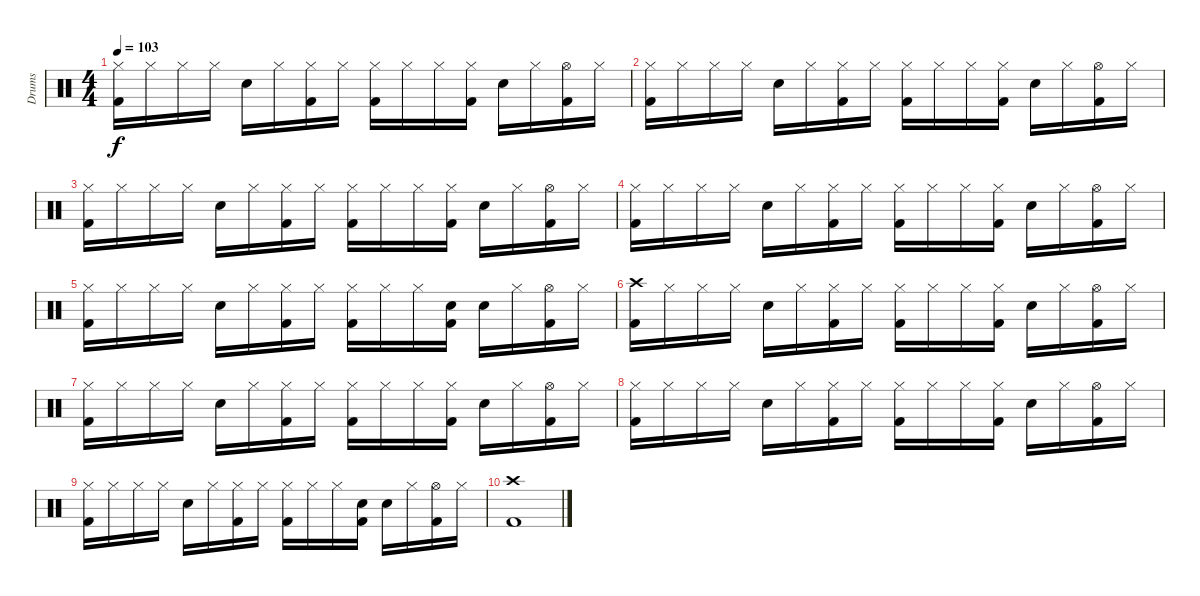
\track ("Drums" "Drums") {instrument percussion}
\staff {score}
\articulation defaults
\ts (4 4)
\tempo 103
\clef neutral
\ks c
("Hi-Hat (closed)" "Kick (hit) 2").16{dy f} "Hi-Hat (closed)".16 "Hi-Hat (closed)".16 "Hi-Hat (closed)".16 "Snare (hit) 2".16 "Hi-Hat (closed)".16 ("Hi-Hat (closed)" "Kick (hit) 2").16 "Hi-Hat (closed)".16 ("Hi-Hat (closed)" "Kick (hit) 2").16 "Hi-Hat (closed)".16 "Hi-Hat (closed)".16 ("Hi-Hat (closed)" "Kick (hit) 2").16 "Snare (hit) 2".16 "Hi-Hat (closed)".16 ("Hi-Hat (open)" "Kick (hit) 2").16 "Hi-Hat (closed)".16 |
("Hi-Hat (closed)" "Kick (hit) 2").16 "Hi-Hat (closed)".16 "Hi-Hat (closed)".16 "Hi-Hat (closed)".16 "Snare (hit) 2".16 "Hi-Hat (closed)".16 ("Hi-Hat (closed)" "Kick (hit) 2").16 "Hi-Hat (closed)".16 ("Hi-Hat (closed)" "Kick (hit) 2").16 "Hi-Hat (closed)".16 "Hi-Hat (closed)".16 ("Hi-Hat (closed)" "Kick (hit) 2").16 "Snare (hit) 2".16 "Hi-Hat (closed)".16 ("Hi-Hat (open)" "Kick (hit) 2").16 "Hi-Hat (closed)".16 |
("Hi-Hat (closed)" "Kick (hit) 2").16 "Hi-Hat (closed)".16 "Hi-Hat (closed)".16 "Hi-Hat (closed)".16 "Snare (hit) 2".16 "Hi-Hat (closed)".16 ("Hi-Hat (closed)" "Kick (hit) 2").16 "Hi-Hat (closed)".16 ("Hi-Hat (closed)" "Kick (hit) 2").16 "Hi-Hat (closed)".16 "Hi-Hat (closed)".16 ("Hi-Hat (closed)" "Kick (hit) 2").16 "Snare (hit) 2".16 "Hi-Hat (closed)".16 ("Hi-Hat (open)" "Kick (hit) 2").16 "Hi-Hat (closed)".16 |
("Hi-Hat (closed)" "Kick (hit) 2").16 "Hi-Hat (closed)".16 "Hi-Hat (closed)".16 "Hi-Hat (closed)".16 "Snare (hit) 2".16 "Hi-Hat (closed)".16 ("Hi-Hat (closed)" "Kick (hit) 2").16 "Hi-Hat (closed)".16 ("Hi-Hat (closed)" "Kick (hit) 2").16 "Hi-Hat (closed)".16 "Hi-Hat (closed)".16 ("Hi-Hat (closed)" "Kick (hit) 2").16 "Snare (hit) 2".16 "Hi-Hat (closed)".16 ("Hi-Hat (open)" "Kick (hit) 2").16 "Hi-Hat (closed)".16 |
("Hi-Hat (closed)" "Kick (hit) 2").16 "Hi-Hat (closed)".16 "Hi-Hat (closed)".16 "Hi-Hat (closed)".16 "Snare (hit) 2".16 "Hi-Hat (closed)".16 ("Hi-Hat (closed)" "Kick (hit) 2").16 "Hi-Hat (closed)".16 ("Hi-Hat (closed)" "Kick (hit) 2").16 "Hi-Hat (closed)".16 "Hi-Hat (closed)".16 ("Snare (hit) 2" "Kick (hit) 2").16 "Snare (hit) 2".16 "Hi-Hat (closed)".16 ("Hi-Hat (open)" "Kick (hit) 2").16 "Hi-Hat (closed)".16 |
("Crash high (hit)" "Kick (hit) 2").16 "Hi-Hat (closed)".16 "Hi-Hat (closed)".16 "Hi-Hat (closed)".16 "Snare (hit) 2".16 "Hi-Hat (closed)".16 ("Hi-Hat (closed)" "Kick (hit) 2").16 "Hi-Hat (closed)".16 ("Hi-Hat (closed)" "Kick (hit) 2").16 "Hi-Hat (closed)".16 "Hi-Hat (closed)".16 ("Hi-Hat (closed)" "Kick (hit) 2").16 "Snare (hit) 2".16 "Hi-Hat (closed)".16 ("Hi-Hat (open)" "Kick (hit) 2").16 "Hi-Hat (closed)".16 |
("Hi-Hat (closed)" "Kick (hit) 2").16 "Hi-Hat (closed)".16 "Hi-Hat (closed)".16 "Hi-Hat (closed)".16 "Snare (hit) 2".16 "Hi-Hat (closed)".16 ("Hi-Hat (closed)" "Kick (hit) 2").16 "Hi-Hat (closed)".16 ("Hi-Hat (closed)" "Kick (hit) 2").16 "Hi-Hat (closed)".16 "Hi-Hat (closed)".16 ("Hi-Hat (closed)" "Kick (hit) 2").16 "Snare (hit) 2".16 "Hi-Hat (closed)".16 ("Hi-Hat (open)" "Kick (hit) 2").16 "Hi-Hat (closed)".16 |
("Hi-Hat (closed)" "Kick (hit) 2").16 "Hi-Hat (closed)".16 "Hi-Hat (closed)".16 "Hi-Hat (closed)".16 "Snare (hit) 2".16 "Hi-Hat (closed)".16 ("Hi-Hat (closed)" "Kick (hit) 2").16 "Hi-Hat (closed)".16 ("Hi-Hat (closed)" "Kick (hit) 2").16 "Hi-Hat (closed)".16 "Hi-Hat (closed)".16 ("Hi-Hat (closed)" "Kick (hit) 2").16 "Snare (hit) 2".16 "Hi-Hat (closed)".16 ("Hi-Hat (open)" "Kick (hit) 2").16 "Hi-Hat (closed)".16 |
("Hi-Hat (closed)" "Kick (hit) 2").16 "Hi-Hat (closed)".16 "Hi-Hat (closed)".16 "Hi-Hat (closed)".16 "Snare (hit) 2".16 "Hi-Hat (closed)".16 ("Hi-Hat (closed)" "Kick (hit) 2").16 "Hi-Hat (closed)".16 ("Hi-Hat (closed)" "Kick (hit) 2").16 "Hi-Hat (closed)".16 "Hi-Hat (closed)".16 ("Snare (hit) 2" "Kick (hit) 2").16 "Snare (hit) 2".16 "Hi-Hat (closed)".16 ("Hi-Hat (open)" "Kick (hit) 2").16 "Hi-Hat (closed)".16 |
("Crash high (hit)" "Kick (hit) 2").1
